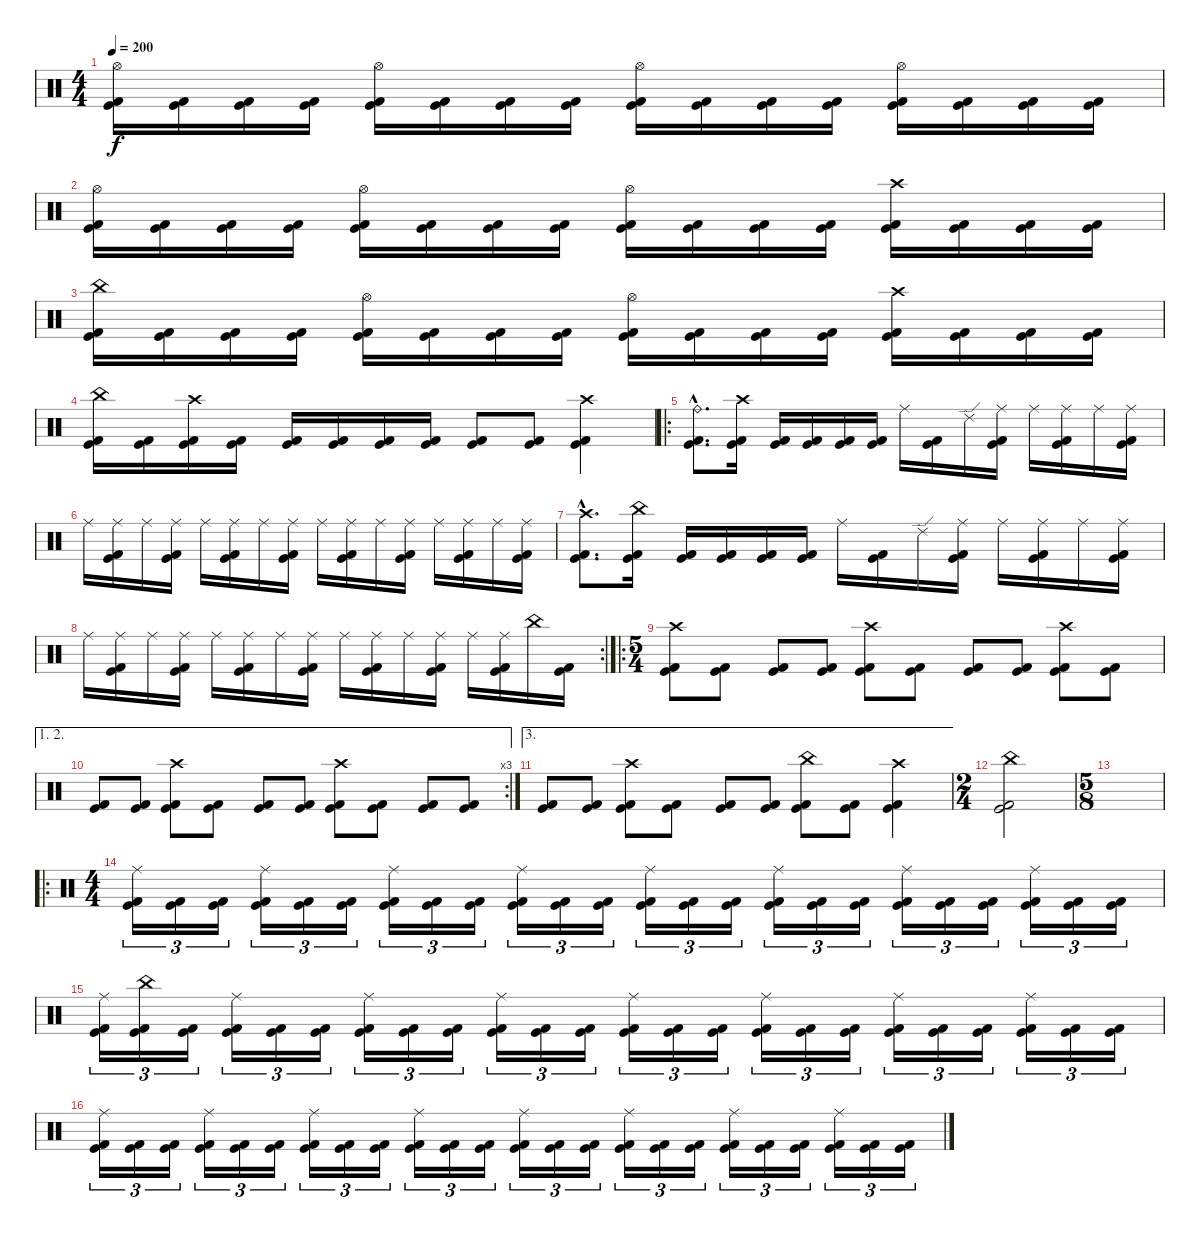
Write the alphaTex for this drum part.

\track "" {instrument percussion}
\staff {score}
\articulation defaults
\ts (4 4)
\tempo 200
\clef neutral
\ks c
("Hi-Hat (open)" "Kick (hit)" "Kick (hit) 2").16{dy f} ("Kick (hit)" "Kick (hit) 2").16 ("Kick (hit)" "Kick (hit) 2").16 ("Kick (hit)" "Kick (hit) 2").16 ("Hi-Hat (open)" "Kick (hit)" "Kick (hit) 2").16 ("Kick (hit)" "Kick (hit) 2").16 ("Kick (hit)" "Kick (hit) 2").16 ("Kick (hit)" "Kick (hit) 2").16 ("Hi-Hat (open)" "Kick (hit)" "Kick (hit) 2").16 ("Kick (hit)" "Kick (hit) 2").16 ("Kick (hit)" "Kick (hit) 2").16 ("Kick (hit)" "Kick (hit) 2").16 ("Hi-Hat (open)" "Kick (hit)" "Kick (hit) 2").16 ("Kick (hit)" "Kick (hit) 2").16 ("Kick (hit)" "Kick (hit) 2").16 ("Kick (hit)" "Kick (hit) 2").16 |
("Hi-Hat (open)" "Kick (hit)" "Kick (hit) 2").16 ("Kick (hit)" "Kick (hit) 2").16 ("Kick (hit)" "Kick (hit) 2").16 ("Kick (hit)" "Kick (hit) 2").16 ("Hi-Hat (open)" "Kick (hit)" "Kick (hit) 2").16 ("Kick (hit)" "Kick (hit) 2").16 ("Kick (hit)" "Kick (hit) 2").16 ("Kick (hit)" "Kick (hit) 2").16 ("Hi-Hat (open)" "Kick (hit)" "Kick (hit) 2").16 ("Kick (hit)" "Kick (hit) 2").16 ("Kick (hit)" "Kick (hit) 2").16 ("Kick (hit)" "Kick (hit) 2").16 ("Crash high (hit)" "Kick (hit)" "Kick (hit) 2").16 ("Kick (hit)" "Kick (hit) 2").16 ("Kick (hit)" "Kick (hit) 2").16 ("Kick (hit)" "Kick (hit) 2").16 |
("China (hit)" "Kick (hit)" "Kick (hit) 2").16 ("Kick (hit)" "Kick (hit) 2").16 ("Kick (hit)" "Kick (hit) 2").16 ("Kick (hit)" "Kick (hit) 2").16 ("Hi-Hat (open)" "Kick (hit)" "Kick (hit) 2").16 ("Kick (hit)" "Kick (hit) 2").16 ("Kick (hit)" "Kick (hit) 2").16 ("Kick (hit)" "Kick (hit) 2").16 ("Hi-Hat (open)" "Kick (hit)" "Kick (hit) 2").16 ("Kick (hit)" "Kick (hit) 2").16 ("Kick (hit)" "Kick (hit) 2").16 ("Kick (hit)" "Kick (hit) 2").16 ("Crash high (hit)" "Kick (hit)" "Kick (hit) 2").16 ("Kick (hit)" "Kick (hit) 2").16 ("Kick (hit)" "Kick (hit) 2").16 ("Kick (hit)" "Kick (hit) 2").16 |
("China (hit)" "Kick (hit)" "Kick (hit) 2").16 ("Kick (hit)" "Kick (hit) 2").16 ("Crash high (hit)" "Kick (hit)" "Kick (hit) 2").16 ("Kick (hit)" "Kick (hit) 2").16 ("Kick (hit)" "Kick (hit) 2").16 ("Kick (hit)" "Kick (hit) 2").16 ("Kick (hit)" "Kick (hit) 2").16 ("Kick (hit)" "Kick (hit) 2").16 ("Kick (hit)" "Kick (hit) 2").8 ("Kick (hit)" "Kick (hit) 2").8 ("Crash high (hit)" "Kick (hit)" "Kick (hit) 2").4 |
\ro
("Ride (bell)"{hac} "Kick (hit)"{hac} "Kick (hit) 2"{hac}).8{d} ("Crash high (hit)" "Kick (hit)" "Kick (hit) 2").16 ("Kick (hit)" "Kick (hit) 2").16 ("Kick (hit)" "Kick (hit) 2").16 ("Kick (hit)" "Kick (hit) 2").16 ("Kick (hit)" "Kick (hit) 2").16 "Ride (middle)".16 ("Kick (hit)" "Kick (hit) 2").16 "Ride (edge) 2".16 ("Ride (middle)" "Kick (hit)" "Kick (hit) 2").16 "Ride (middle)".16 ("Ride (middle)" "Kick (hit)" "Kick (hit) 2").16 "Ride (middle)".16 ("Ride (middle)" "Kick (hit)" "Kick (hit) 2").16 |
"Ride (middle)".16 ("Ride (middle)" "Kick (hit)" "Kick (hit) 2").16 "Ride (middle)".16 ("Ride (middle)" "Kick (hit)" "Kick (hit) 2").16 "Ride (middle)".16 ("Ride (middle)" "Kick (hit)" "Kick (hit) 2").16 "Ride (middle)".16 ("Ride (middle)" "Kick (hit)" "Kick (hit) 2").16 "Ride (middle)".16 ("Ride (middle)" "Kick (hit)" "Kick (hit) 2").16 "Ride (middle)".16 ("Ride (middle)" "Kick (hit)" "Kick (hit) 2").16 "Ride (middle)".16 ("Ride (middle)" "Kick (hit)" "Kick (hit) 2").16 "Ride (middle)".16 ("Ride (middle)" "Kick (hit)" "Kick (hit) 2").16 |
("Crash high (hit)"{hac} "Kick (hit)"{hac} "Kick (hit) 2"{hac}).8{d} ("China (hit)" "Kick (hit)" "Kick (hit) 2").16 ("Kick (hit)" "Kick (hit) 2").16 ("Kick (hit)" "Kick (hit) 2").16 ("Kick (hit)" "Kick (hit) 2").16 ("Kick (hit)" "Kick (hit) 2").16 "Ride (middle)".16 ("Kick (hit)" "Kick (hit) 2").16 "Ride (edge) 2".16 ("Ride (middle)" "Kick (hit)" "Kick (hit) 2").16 "Ride (middle)".16 ("Ride (middle)" "Kick (hit)" "Kick (hit) 2").16 "Ride (middle)".16 ("Ride (middle)" "Kick (hit)" "Kick (hit) 2").16 |
\rc 2 "Ride (middle)".16
("Ride (middle)" "Kick (hit)" "Kick (hit) 2").16 "Ride (middle)".16 ("Ride (middle)" "Kick (hit)" "Kick (hit) 2").16 "Ride (middle)".16 ("Ride (middle)" "Kick (hit)" "Kick (hit) 2").16 "Ride (middle)".16 ("Ride (middle)" "Kick (hit)" "Kick (hit) 2").16 "Ride (middle)".16 ("Ride (middle)" "Kick (hit)" "Kick (hit) 2").16 "Ride (middle)".16 ("Ride (middle)" "Kick (hit)" "Kick (hit) 2").16 "Ride (middle)".16 ("Ride (middle)" "Kick (hit)" "Kick (hit) 2").16 "China (hit)".16 ("Kick (hit)" "Kick (hit) 2").16 |
\ro
\ts (5 4)
("Crash high (hit)" "Kick (hit)" "Kick (hit) 2").8 ("Kick (hit)" "Kick (hit) 2").8 ("Kick (hit)" "Kick (hit) 2").8 ("Kick (hit)" "Kick (hit) 2").8 ("Crash high (hit)" "Kick (hit)" "Kick (hit) 2").8 ("Kick (hit)" "Kick (hit) 2").8 ("Kick (hit)" "Kick (hit) 2").8 ("Kick (hit)" "Kick (hit) 2").8 ("Crash high (hit)" "Kick (hit)" "Kick (hit) 2").8 ("Kick (hit)" "Kick (hit) 2").8 |
\ae (1 2)
\rc 3
("Kick (hit)" "Kick (hit) 2").8 ("Kick (hit)" "Kick (hit) 2").8 ("Crash high (hit)" "Kick (hit)" "Kick (hit) 2").8 ("Kick (hit)" "Kick (hit) 2").8 ("Kick (hit)" "Kick (hit) 2").8 ("Kick (hit)" "Kick (hit) 2").8 ("Crash high (hit)" "Kick (hit)" "Kick (hit) 2").8 ("Kick (hit)" "Kick (hit) 2").8 ("Kick (hit)" "Kick (hit) 2").8 ("Kick (hit)" "Kick (hit) 2").8 |
\ae 3
("Kick (hit)" "Kick (hit) 2").8 ("Kick (hit)" "Kick (hit) 2").8 ("Crash high (hit)" "Kick (hit)" "Kick (hit) 2").8 ("Kick (hit)" "Kick (hit) 2").8 ("Kick (hit)" "Kick (hit) 2").8 ("Kick (hit)" "Kick (hit) 2").8 ("China (hit)" "Kick (hit)" "Kick (hit) 2").8 ("Kick (hit)" "Kick (hit) 2").8 ("Crash high (hit)" "Kick (hit)" "Kick (hit) 2").4 |
\ts (2 4)
("China (hit)" "Kick (hit)" "Kick (hit) 2").2 |
\ts (5 8)
|
\ro
\ts (4 4)
("Ride (middle)" "Kick (hit)" "Kick (hit) 2").16{tu (3 2)} ("Kick (hit)" "Kick (hit) 2").16{tu (3 2)} ("Kick (hit)" "Kick (hit) 2").16{tu (3 2)} ("Ride (middle)" "Kick (hit)" "Kick (hit) 2").16{tu (3 2)} ("Kick (hit)" "Kick (hit) 2").16{tu (3 2)} ("Kick (hit)" "Kick (hit) 2").16{tu (3 2)} ("Ride (middle)" "Kick (hit)" "Kick (hit) 2").16{tu (3 2)} ("Kick (hit)" "Kick (hit) 2").16{tu (3 2)} ("Kick (hit)" "Kick (hit) 2").16{tu (3 2)} ("Ride (middle)" "Kick (hit)" "Kick (hit) 2").16{tu (3 2)} ("Kick (hit)" "Kick (hit) 2").16{tu (3 2)} ("Kick (hit)" "Kick (hit) 2").16{tu (3 2)} ("Ride (middle)" "Kick (hit)" "Kick (hit) 2").16{tu (3 2)} ("Kick (hit)" "Kick (hit) 2").16{tu (3 2)} ("Kick (hit)" "Kick (hit) 2").16{tu (3 2)} ("Ride (middle)" "Kick (hit)" "Kick (hit) 2").16{tu (3 2)} ("Kick (hit)" "Kick (hit) 2").16{tu (3 2)} ("Kick (hit)" "Kick (hit) 2").16{tu (3 2)} ("Ride (middle)" "Kick (hit)" "Kick (hit) 2").16{tu (3 2)} ("Kick (hit)" "Kick (hit) 2").16{tu (3 2)} ("Kick (hit)" "Kick (hit) 2").16{tu (3 2)} ("Ride (middle)" "Kick (hit)" "Kick (hit) 2").16{tu (3 2)} ("Kick (hit)" "Kick (hit) 2").16{tu (3 2)} ("Kick (hit)" "Kick (hit) 2").16{tu (3 2)} |
("Ride (middle)" "Kick (hit)" "Kick (hit) 2").16{tu (3 2)} ("China (hit)" "Kick (hit)" "Kick (hit) 2").16{tu (3 2)} ("Kick (hit)" "Kick (hit) 2").16{tu (3 2)} ("Ride (middle)" "Kick (hit)" "Kick (hit) 2").16{tu (3 2)} ("Kick (hit)" "Kick (hit) 2").16{tu (3 2)} ("Kick (hit)" "Kick (hit) 2").16{tu (3 2)} ("Ride (middle)" "Kick (hit)" "Kick (hit) 2").16{tu (3 2)} ("Kick (hit)" "Kick (hit) 2").16{tu (3 2)} ("Kick (hit)" "Kick (hit) 2").16{tu (3 2)} ("Ride (middle)" "Kick (hit)" "Kick (hit) 2").16{tu (3 2)} ("Kick (hit)" "Kick (hit) 2").16{tu (3 2)} ("Kick (hit)" "Kick (hit) 2").16{tu (3 2)} ("Ride (middle)" "Kick (hit)" "Kick (hit) 2").16{tu (3 2)} ("Kick (hit)" "Kick (hit) 2").16{tu (3 2)} ("Kick (hit)" "Kick (hit) 2").16{tu (3 2)} ("Ride (middle)" "Kick (hit)" "Kick (hit) 2").16{tu (3 2)} ("Kick (hit)" "Kick (hit) 2").16{tu (3 2)} ("Kick (hit)" "Kick (hit) 2").16{tu (3 2)} ("Ride (middle)" "Kick (hit)" "Kick (hit) 2").16{tu (3 2)} ("Kick (hit)" "Kick (hit) 2").16{tu (3 2)} ("Kick (hit)" "Kick (hit) 2").16{tu (3 2)} ("Ride (middle)" "Kick (hit)" "Kick (hit) 2").16{tu (3 2)} ("Kick (hit)" "Kick (hit) 2").16{tu (3 2)} ("Kick (hit)" "Kick (hit) 2").16{tu (3 2)} |
("Ride (middle)" "Kick (hit)" "Kick (hit) 2").16{tu (3 2)} ("Kick (hit)" "Kick (hit) 2").16{tu (3 2)} ("Kick (hit)" "Kick (hit) 2").16{tu (3 2)} ("Ride (middle)" "Kick (hit)" "Kick (hit) 2").16{tu (3 2)} ("Kick (hit)" "Kick (hit) 2").16{tu (3 2)} ("Kick (hit)" "Kick (hit) 2").16{tu (3 2)} ("Ride (middle)" "Kick (hit)" "Kick (hit) 2").16{tu (3 2)} ("Kick (hit)" "Kick (hit) 2").16{tu (3 2)} ("Kick (hit)" "Kick (hit) 2").16{tu (3 2)} ("Ride (middle)" "Kick (hit)" "Kick (hit) 2").16{tu (3 2)} ("Kick (hit)" "Kick (hit) 2").16{tu (3 2)} ("Kick (hit)" "Kick (hit) 2").16{tu (3 2)} ("Ride (middle)" "Kick (hit)" "Kick (hit) 2").16{tu (3 2)} ("Kick (hit)" "Kick (hit) 2").16{tu (3 2)} ("Kick (hit)" "Kick (hit) 2").16{tu (3 2)} ("Ride (middle)" "Kick (hit)" "Kick (hit) 2").16{tu (3 2)} ("Kick (hit)" "Kick (hit) 2").16{tu (3 2)} ("Kick (hit)" "Kick (hit) 2").16{tu (3 2)} ("Ride (middle)" "Kick (hit)" "Kick (hit) 2").16{tu (3 2)} ("Kick (hit)" "Kick (hit) 2").16{tu (3 2)} ("Kick (hit)" "Kick (hit) 2").16{tu (3 2)} ("Ride (middle)" "Kick (hit)" "Kick (hit) 2").16{tu (3 2)} ("Kick (hit)" "Kick (hit) 2").16{tu (3 2)} ("Kick (hit)" "Kick (hit) 2").16{tu (3 2)}
